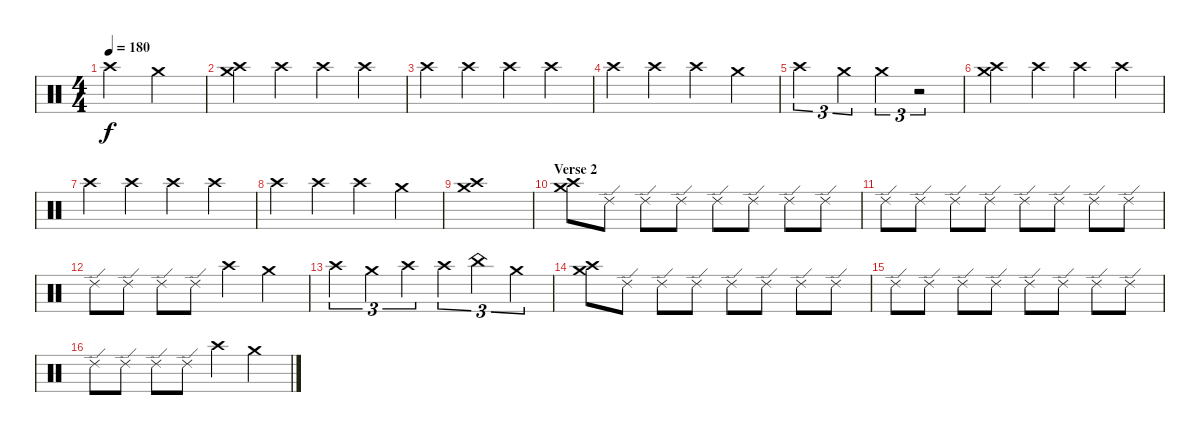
\track "" {instrument percussion}
\staff {score}
\articulation defaults
\ts (4 4)
\tempo 180
\clef neutral
\ks c "Crash high (hit)".2{dy f} "Crash medium (hit)".2
|
("Crash medium (hit)" "Crash high (hit)").4 "Crash high (hit)".4 "Crash high (hit)".4 "Crash high (hit)".4 |
"Crash high (hit)".4 "Crash high (hit)".4 "Crash high (hit)".4 "Crash high (hit)".4 |
"Crash high (hit)".4 "Crash high (hit)".4 "Crash high (hit)".4 "Crash medium (hit)".4 |
"Crash high (hit)".2{tu (3 2)} "Crash medium (hit)".4{tu (3 2)} "Crash medium (hit)".4{tu (3 2)} r.2{tu (3 2)} |
("Crash medium (hit)" "Crash high (hit)").4 "Crash high (hit)".4 "Crash high (hit)".4 "Crash high (hit)".4 |
"Crash high (hit)".4 "Crash high (hit)".4 "Crash high (hit)".4 "Crash high (hit)".4 |
"Crash high (hit)".4 "Crash high (hit)".4 "Crash high (hit)".4 "Crash medium (hit)".4 |
("Crash medium (hit)" "Crash high (hit)").1 |
\section ("" "Verse 2")
("Crash medium (hit)" "Crash high (hit)").8 "Ride (edge) 2".8 "Ride (edge) 2".8 "Ride (edge) 2".8 "Ride (edge) 2".8 "Ride (edge) 2".8 "Ride (edge) 2".8 "Ride (edge) 2".8 |
"Ride (edge) 2".8 "Ride (edge) 2".8 "Ride (edge) 2".8 "Ride (edge) 2".8 "Ride (edge) 2".8 "Ride (edge) 2".8 "Ride (edge) 2".8 "Ride (edge) 2".8 |
"Ride (edge) 2".8 "Ride (edge) 2".8 "Ride (edge) 2".8 "Ride (edge) 2".8 "Crash high (hit)".4 "Crash medium (hit)".4 |
"Crash high (hit)".4{tu (3 2)} "Crash medium (hit)".4{tu (3 2)} "Crash high (hit)".4{tu (3 2)} "Crash high (hit)".4{tu (3 2)} "China (hit)".4{tu (3 2)} "Crash medium (hit)".4{tu (3 2)} |
("Crash medium (hit)" "Crash high (hit)").8 "Ride (edge) 2".8 "Ride (edge) 2".8 "Ride (edge) 2".8 "Ride (edge) 2".8 "Ride (edge) 2".8 "Ride (edge) 2".8 "Ride (edge) 2".8 |
"Ride (edge) 2".8 "Ride (edge) 2".8 "Ride (edge) 2".8 "Ride (edge) 2".8 "Ride (edge) 2".8 "Ride (edge) 2".8 "Ride (edge) 2".8 "Ride (edge) 2".8 |
"Ride (edge) 2".8 "Ride (edge) 2".8 "Ride (edge) 2".8 "Ride (edge) 2".8 "Crash high (hit)".4 "Crash medium (hit)".4
